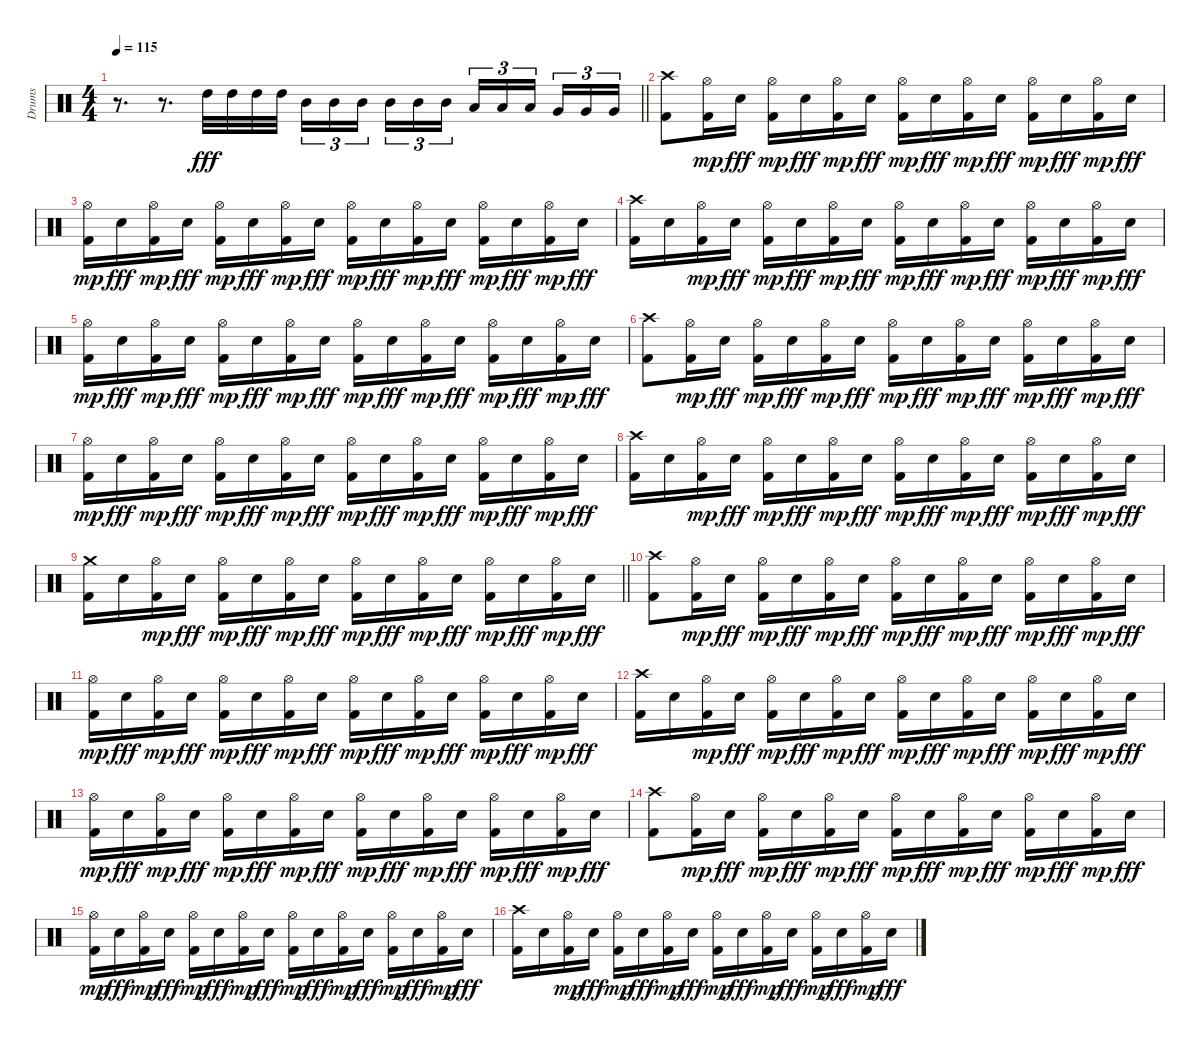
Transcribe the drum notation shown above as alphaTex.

\track ("Drums" "Drums") {instrument percussion}
\staff {score}
\articulation defaults
\ts (4 4)
\tempo 115
\clef neutral
\barLineRight lightlight
\ks c
r.8{d dy fff} r.8{d} "High Tom (hit)".32 "High Tom (hit)".32 "High Tom (hit)".32 "High Tom (hit)".32 "Mid Tom (hit)".16{tu (3 2)} "Mid Tom (hit)".16{tu (3 2)} "Mid Tom (hit)".16{tu (3 2) beam splitsecondary} "Mid Tom (hit)".16{tu (3 2)} "Mid Tom (hit)".16{tu (3 2)} "Mid Tom (hit)".16{tu (3 2)} "Low Tom (hit)".16{tu (3 2)} "Low Tom (hit)".16{tu (3 2)} "Low Tom (hit)".16{tu (3 2) beam splitsecondary} "Very Low Tom (hit)".16{tu (3 2)} "Very Low Tom (hit)".16{tu (3 2)} "Very Low Tom (hit)".16{tu (3 2)} |
\section ("" "")
("Kick (hit) 2" "Crash high (hit)").8 ("Kick (hit) 2" "Hi-Hat (open)").16{dy mp} "Electric Snare (hit)".16{dy fff} ("Kick (hit) 2" "Hi-Hat (open)").16{dy mp} "Electric Snare (hit)".16{dy fff} ("Kick (hit) 2" "Hi-Hat (open)").16{dy mp} "Electric Snare (hit)".16{dy fff} ("Kick (hit) 2" "Hi-Hat (open)").16{dy mp} "Electric Snare (hit)".16{dy fff} ("Kick (hit) 2" "Hi-Hat (open)").16{dy mp} "Electric Snare (hit)".16{dy fff} ("Kick (hit) 2" "Hi-Hat (open)").16{dy mp} "Electric Snare (hit)".16{dy fff} ("Kick (hit) 2" "Hi-Hat (open)").16{dy mp} "Electric Snare (hit)".16{dy fff} |
("Kick (hit) 2" "Hi-Hat (open)").16{dy mp} "Electric Snare (hit)".16{dy fff} ("Kick (hit) 2" "Hi-Hat (open)").16{dy mp} "Electric Snare (hit)".16{dy fff} ("Kick (hit) 2" "Hi-Hat (open)").16{dy mp} "Electric Snare (hit)".16{dy fff} ("Kick (hit) 2" "Hi-Hat (open)").16{dy mp} "Electric Snare (hit)".16{dy fff} ("Kick (hit) 2" "Hi-Hat (open)").16{dy mp} "Electric Snare (hit)".16{dy fff} ("Kick (hit) 2" "Hi-Hat (open)").16{dy mp} "Electric Snare (hit)".16{dy fff} ("Kick (hit) 2" "Hi-Hat (open)").16{dy mp} "Electric Snare (hit)".16{dy fff} ("Kick (hit) 2" "Hi-Hat (open)").16{dy mp} "Electric Snare (hit)".16{dy fff} |
("Kick (hit) 2" "Crash high (hit)").16 "Electric Snare (hit)".16 ("Kick (hit) 2" "Hi-Hat (open)").16{dy mp} "Electric Snare (hit)".16{dy fff} ("Kick (hit) 2" "Hi-Hat (open)").16{dy mp} "Electric Snare (hit)".16{dy fff} ("Kick (hit) 2" "Hi-Hat (open)").16{dy mp} "Electric Snare (hit)".16{dy fff} ("Kick (hit) 2" "Hi-Hat (open)").16{dy mp} "Electric Snare (hit)".16{dy fff} ("Kick (hit) 2" "Hi-Hat (open)").16{dy mp} "Electric Snare (hit)".16{dy fff} ("Kick (hit) 2" "Hi-Hat (open)").16{dy mp} "Electric Snare (hit)".16{dy fff} ("Kick (hit) 2" "Hi-Hat (open)").16{dy mp} "Electric Snare (hit)".16{dy fff} |
("Kick (hit) 2" "Hi-Hat (open)").16{dy mp} "Electric Snare (hit)".16{dy fff} ("Kick (hit) 2" "Hi-Hat (open)").16{dy mp} "Electric Snare (hit)".16{dy fff} ("Kick (hit) 2" "Hi-Hat (open)").16{dy mp} "Electric Snare (hit)".16{dy fff} ("Kick (hit) 2" "Hi-Hat (open)").16{dy mp} "Electric Snare (hit)".16{dy fff} ("Kick (hit) 2" "Hi-Hat (open)").16{dy mp} "Electric Snare (hit)".16{dy fff} ("Kick (hit) 2" "Hi-Hat (open)").16{dy mp} "Electric Snare (hit)".16{dy fff} ("Kick (hit) 2" "Hi-Hat (open)").16{dy mp} "Electric Snare (hit)".16{dy fff} ("Kick (hit) 2" "Hi-Hat (open)").16{dy mp} "Electric Snare (hit)".16{dy fff} |
("Kick (hit) 2" "Crash high (hit)").8 ("Kick (hit) 2" "Hi-Hat (open)").16{dy mp} "Electric Snare (hit)".16{dy fff} ("Kick (hit) 2" "Hi-Hat (open)").16{dy mp} "Electric Snare (hit)".16{dy fff} ("Kick (hit) 2" "Hi-Hat (open)").16{dy mp} "Electric Snare (hit)".16{dy fff} ("Kick (hit) 2" "Hi-Hat (open)").16{dy mp} "Electric Snare (hit)".16{dy fff} ("Kick (hit) 2" "Hi-Hat (open)").16{dy mp} "Electric Snare (hit)".16{dy fff} ("Kick (hit) 2" "Hi-Hat (open)").16{dy mp} "Electric Snare (hit)".16{dy fff} ("Kick (hit) 2" "Hi-Hat (open)").16{dy mp} "Electric Snare (hit)".16{dy fff} |
("Kick (hit) 2" "Hi-Hat (open)").16{dy mp} "Electric Snare (hit)".16{dy fff} ("Kick (hit) 2" "Hi-Hat (open)").16{dy mp} "Electric Snare (hit)".16{dy fff} ("Kick (hit) 2" "Hi-Hat (open)").16{dy mp} "Electric Snare (hit)".16{dy fff} ("Kick (hit) 2" "Hi-Hat (open)").16{dy mp} "Electric Snare (hit)".16{dy fff} ("Kick (hit) 2" "Hi-Hat (open)").16{dy mp} "Electric Snare (hit)".16{dy fff} ("Kick (hit) 2" "Hi-Hat (open)").16{dy mp} "Electric Snare (hit)".16{dy fff} ("Kick (hit) 2" "Hi-Hat (open)").16{dy mp} "Electric Snare (hit)".16{dy fff} ("Kick (hit) 2" "Hi-Hat (open)").16{dy mp} "Electric Snare (hit)".16{dy fff} |
("Kick (hit) 2" "Crash high (hit)").16 "Electric Snare (hit)".16 ("Kick (hit) 2" "Hi-Hat (open)").16{dy mp} "Electric Snare (hit)".16{dy fff} ("Kick (hit) 2" "Hi-Hat (open)").16{dy mp} "Electric Snare (hit)".16{dy fff} ("Kick (hit) 2" "Hi-Hat (open)").16{dy mp} "Electric Snare (hit)".16{dy fff} ("Kick (hit) 2" "Hi-Hat (open)").16{dy mp} "Electric Snare (hit)".16{dy fff} ("Kick (hit) 2" "Hi-Hat (open)").16{dy mp} "Electric Snare (hit)".16{dy fff} ("Kick (hit) 2" "Hi-Hat (open)").16{dy mp} "Electric Snare (hit)".16{dy fff} ("Kick (hit) 2" "Hi-Hat (open)").16{dy mp} "Electric Snare (hit)".16{dy fff} |
\barLineRight lightlight
("Kick (hit) 2" "Crash medium (hit)").16 "Electric Snare (hit)".16 ("Kick (hit) 2" "Hi-Hat (open)").16{dy mp} "Electric Snare (hit)".16{dy fff} ("Kick (hit) 2" "Hi-Hat (open)").16{dy mp} "Electric Snare (hit)".16{dy fff} ("Kick (hit) 2" "Hi-Hat (open)").16{dy mp} "Electric Snare (hit)".16{dy fff} ("Kick (hit) 2" "Hi-Hat (open)").16{dy mp} "Electric Snare (hit)".16{dy fff} ("Kick (hit) 2" "Hi-Hat (open)").16{dy mp} "Electric Snare (hit)".16{dy fff} ("Kick (hit) 2" "Hi-Hat (open)").16{dy mp} "Electric Snare (hit)".16{dy fff} ("Kick (hit) 2" "Hi-Hat (open)").16{dy mp} "Electric Snare (hit)".16{dy fff} |
\section ("" "")
("Kick (hit) 2" "Crash high (hit)").8 ("Kick (hit) 2" "Hi-Hat (open)").16{dy mp} "Electric Snare (hit)".16{dy fff} ("Kick (hit) 2" "Hi-Hat (open)").16{dy mp} "Electric Snare (hit)".16{dy fff} ("Kick (hit) 2" "Hi-Hat (open)").16{dy mp} "Electric Snare (hit)".16{dy fff} ("Kick (hit) 2" "Hi-Hat (open)").16{dy mp} "Electric Snare (hit)".16{dy fff} ("Kick (hit) 2" "Hi-Hat (open)").16{dy mp} "Electric Snare (hit)".16{dy fff} ("Kick (hit) 2" "Hi-Hat (open)").16{dy mp} "Electric Snare (hit)".16{dy fff} ("Kick (hit) 2" "Hi-Hat (open)").16{dy mp} "Electric Snare (hit)".16{dy fff} |
("Kick (hit) 2" "Hi-Hat (open)").16{dy mp} "Electric Snare (hit)".16{dy fff} ("Kick (hit) 2" "Hi-Hat (open)").16{dy mp} "Electric Snare (hit)".16{dy fff} ("Kick (hit) 2" "Hi-Hat (open)").16{dy mp} "Electric Snare (hit)".16{dy fff} ("Kick (hit) 2" "Hi-Hat (open)").16{dy mp} "Electric Snare (hit)".16{dy fff} ("Kick (hit) 2" "Hi-Hat (open)").16{dy mp} "Electric Snare (hit)".16{dy fff} ("Kick (hit) 2" "Hi-Hat (open)").16{dy mp} "Electric Snare (hit)".16{dy fff} ("Kick (hit) 2" "Hi-Hat (open)").16{dy mp} "Electric Snare (hit)".16{dy fff} ("Kick (hit) 2" "Hi-Hat (open)").16{dy mp} "Electric Snare (hit)".16{dy fff} |
("Kick (hit) 2" "Crash high (hit)").16 "Electric Snare (hit)".16 ("Kick (hit) 2" "Hi-Hat (open)").16{dy mp} "Electric Snare (hit)".16{dy fff} ("Kick (hit) 2" "Hi-Hat (open)").16{dy mp} "Electric Snare (hit)".16{dy fff} ("Kick (hit) 2" "Hi-Hat (open)").16{dy mp} "Electric Snare (hit)".16{dy fff} ("Kick (hit) 2" "Hi-Hat (open)").16{dy mp} "Electric Snare (hit)".16{dy fff} ("Kick (hit) 2" "Hi-Hat (open)").16{dy mp} "Electric Snare (hit)".16{dy fff} ("Kick (hit) 2" "Hi-Hat (open)").16{dy mp} "Electric Snare (hit)".16{dy fff} ("Kick (hit) 2" "Hi-Hat (open)").16{dy mp} "Electric Snare (hit)".16{dy fff} |
("Kick (hit) 2" "Hi-Hat (open)").16{dy mp} "Electric Snare (hit)".16{dy fff} ("Kick (hit) 2" "Hi-Hat (open)").16{dy mp} "Electric Snare (hit)".16{dy fff} ("Kick (hit) 2" "Hi-Hat (open)").16{dy mp} "Electric Snare (hit)".16{dy fff} ("Kick (hit) 2" "Hi-Hat (open)").16{dy mp} "Electric Snare (hit)".16{dy fff} ("Kick (hit) 2" "Hi-Hat (open)").16{dy mp} "Electric Snare (hit)".16{dy fff} ("Kick (hit) 2" "Hi-Hat (open)").16{dy mp} "Electric Snare (hit)".16{dy fff} ("Kick (hit) 2" "Hi-Hat (open)").16{dy mp} "Electric Snare (hit)".16{dy fff} ("Kick (hit) 2" "Hi-Hat (open)").16{dy mp} "Electric Snare (hit)".16{dy fff} |
("Kick (hit) 2" "Crash high (hit)").8 ("Kick (hit) 2" "Hi-Hat (open)").16{dy mp} "Electric Snare (hit)".16{dy fff} ("Kick (hit) 2" "Hi-Hat (open)").16{dy mp} "Electric Snare (hit)".16{dy fff} ("Kick (hit) 2" "Hi-Hat (open)").16{dy mp} "Electric Snare (hit)".16{dy fff} ("Kick (hit) 2" "Hi-Hat (open)").16{dy mp} "Electric Snare (hit)".16{dy fff} ("Kick (hit) 2" "Hi-Hat (open)").16{dy mp} "Electric Snare (hit)".16{dy fff} ("Kick (hit) 2" "Hi-Hat (open)").16{dy mp} "Electric Snare (hit)".16{dy fff} ("Kick (hit) 2" "Hi-Hat (open)").16{dy mp} "Electric Snare (hit)".16{dy fff} |
("Kick (hit) 2" "Hi-Hat (open)").16{dy mp} "Electric Snare (hit)".16{dy fff} ("Kick (hit) 2" "Hi-Hat (open)").16{dy mp} "Electric Snare (hit)".16{dy fff} ("Kick (hit) 2" "Hi-Hat (open)").16{dy mp} "Electric Snare (hit)".16{dy fff} ("Kick (hit) 2" "Hi-Hat (open)").16{dy mp} "Electric Snare (hit)".16{dy fff} ("Kick (hit) 2" "Hi-Hat (open)").16{dy mp} "Electric Snare (hit)".16{dy fff} ("Kick (hit) 2" "Hi-Hat (open)").16{dy mp} "Electric Snare (hit)".16{dy fff} ("Kick (hit) 2" "Hi-Hat (open)").16{dy mp} "Electric Snare (hit)".16{dy fff} ("Kick (hit) 2" "Hi-Hat (open)").16{dy mp} "Electric Snare (hit)".16{dy fff} |
("Kick (hit) 2" "Crash high (hit)").16 "Electric Snare (hit)".16 ("Kick (hit) 2" "Hi-Hat (open)").16{dy mp} "Electric Snare (hit)".16{dy fff} ("Kick (hit) 2" "Hi-Hat (open)").16{dy mp} "Electric Snare (hit)".16{dy fff} ("Kick (hit) 2" "Hi-Hat (open)").16{dy mp} "Electric Snare (hit)".16{dy fff} ("Kick (hit) 2" "Hi-Hat (open)").16{dy mp} "Electric Snare (hit)".16{dy fff} ("Kick (hit) 2" "Hi-Hat (open)").16{dy mp} "Electric Snare (hit)".16{dy fff} ("Kick (hit) 2" "Hi-Hat (open)").16{dy mp} "Electric Snare (hit)".16{dy fff} ("Kick (hit) 2" "Hi-Hat (open)").16{dy mp} "Electric Snare (hit)".16{dy fff}
